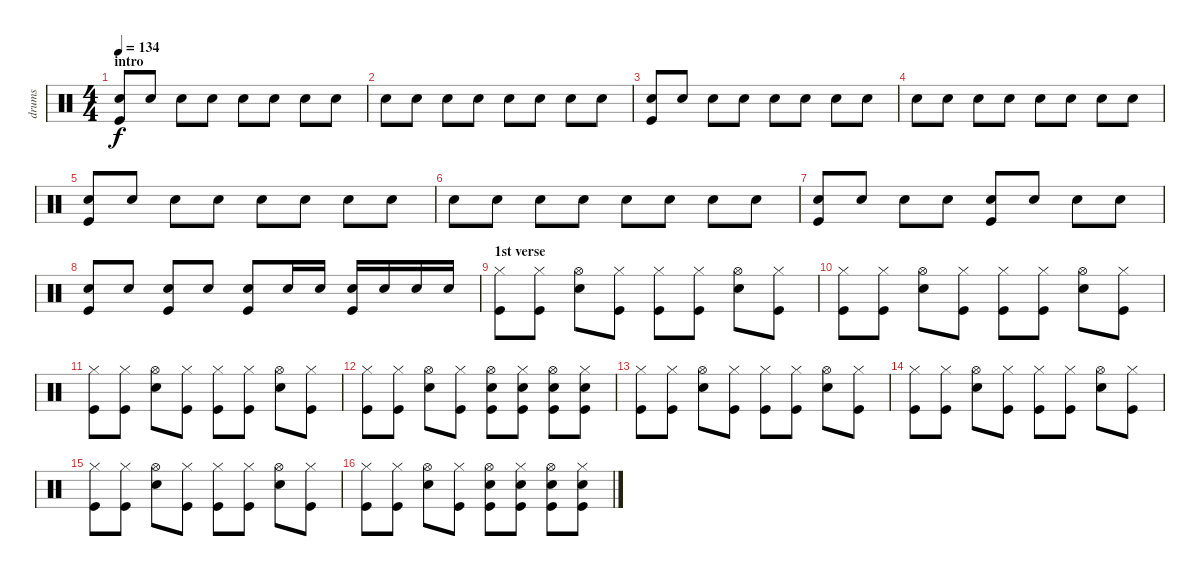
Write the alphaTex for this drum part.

\track ("drums" "drums") {instrument percussion}
\staff {score}
\articulation defaults
\ts (4 4)
\section ("" "intro")
\tempo 134
\clef neutral
\ks c
("Electric Snare (hit)" "Kick (hit)").8{dy f volume 5} "Electric Snare (hit)".8 "Electric Snare (hit)".8{volume 13} "Electric Snare (hit)".8 "Electric Snare (hit)".8 "Electric Snare (hit)".8 "Electric Snare (hit)".8 "Electric Snare (hit)".8 |
"Electric Snare (hit)".8 "Electric Snare (hit)".8 "Electric Snare (hit)".8 "Electric Snare (hit)".8 "Electric Snare (hit)".8 "Electric Snare (hit)".8 "Electric Snare (hit)".8 "Electric Snare (hit)".8 |
("Electric Snare (hit)" "Kick (hit)").8 "Electric Snare (hit)".8{volume 5} "Electric Snare (hit)".8{volume 13} "Electric Snare (hit)".8 "Electric Snare (hit)".8 "Electric Snare (hit)".8 "Electric Snare (hit)".8 "Electric Snare (hit)".8 |
"Electric Snare (hit)".8 "Electric Snare (hit)".8 "Electric Snare (hit)".8 "Electric Snare (hit)".8 "Electric Snare (hit)".8 "Electric Snare (hit)".8 "Electric Snare (hit)".8 "Electric Snare (hit)".8 |
("Electric Snare (hit)" "Kick (hit)").8 "Electric Snare (hit)".8{volume 5} "Electric Snare (hit)".8{volume 13} "Electric Snare (hit)".8 "Electric Snare (hit)".8 "Electric Snare (hit)".8 "Electric Snare (hit)".8 "Electric Snare (hit)".8 |
"Electric Snare (hit)".8 "Electric Snare (hit)".8 "Electric Snare (hit)".8 "Electric Snare (hit)".8 "Electric Snare (hit)".8 "Electric Snare (hit)".8 "Electric Snare (hit)".8 "Electric Snare (hit)".8 |
("Electric Snare (hit)" "Kick (hit)").8 "Electric Snare (hit)".8{volume 5} "Electric Snare (hit)".8{volume 13} "Electric Snare (hit)".8 ("Electric Snare (hit)" "Kick (hit)").8 "Electric Snare (hit)".8 "Electric Snare (hit)".8 "Electric Snare (hit)".8 |
("Electric Snare (hit)" "Kick (hit)").8 "Electric Snare (hit)".8 ("Electric Snare (hit)" "Kick (hit)").8 "Electric Snare (hit)".8 ("Electric Snare (hit)" "Kick (hit)").8 "Electric Snare (hit)".16 "Electric Snare (hit)".16 ("Snare (hit) 2" "Kick (hit)").16 "Electric Snare (hit)".16 "Electric Snare (hit)".16 "Electric Snare (hit)".16 |
\section ("" "1st verse")
("Kick (hit)" "Hi-Hat (closed)").8{volume 11} ("Kick (hit)" "Hi-Hat (closed)").8 ("Electric Snare (hit)" "Hi-Hat (open)").8 ("Kick (hit)" "Hi-Hat (closed)").8 ("Kick (hit)" "Hi-Hat (closed)").8 ("Kick (hit)" "Hi-Hat (closed)").8 ("Electric Snare (hit)" "Hi-Hat (open)").8 ("Kick (hit)" "Hi-Hat (closed)").8 |
("Kick (hit)" "Hi-Hat (closed)").8 ("Kick (hit)" "Hi-Hat (closed)").8 ("Electric Snare (hit)" "Hi-Hat (open)").8 ("Kick (hit)" "Hi-Hat (closed)").8 ("Kick (hit)" "Hi-Hat (closed)").8 ("Kick (hit)" "Hi-Hat (closed)").8 ("Electric Snare (hit)" "Hi-Hat (open)").8 ("Kick (hit)" "Hi-Hat (closed)").8 |
("Kick (hit)" "Hi-Hat (closed)").8 ("Kick (hit)" "Hi-Hat (closed)").8 ("Electric Snare (hit)" "Hi-Hat (open)").8 ("Kick (hit)" "Hi-Hat (closed)").8 ("Kick (hit)" "Hi-Hat (closed)").8 ("Kick (hit)" "Hi-Hat (closed)").8 ("Electric Snare (hit)" "Hi-Hat (open)").8 ("Kick (hit)" "Hi-Hat (closed)").8 |
("Kick (hit)" "Hi-Hat (closed)").8 ("Kick (hit)" "Hi-Hat (closed)").8 ("Electric Snare (hit)" "Hi-Hat (open)").8 ("Kick (hit)" "Hi-Hat (closed)").8 ("Electric Snare (hit)" "Hi-Hat (open)" "Kick (hit)").8 ("Electric Snare (hit)" "Hi-Hat (closed)" "Kick (hit)").8 ("Electric Snare (hit)" "Hi-Hat (open)" "Kick (hit)").8 ("Electric Snare (hit)" "Hi-Hat (closed)" "Kick (hit)").8 |
\section ("" "")
("Kick (hit)" "Hi-Hat (closed)").8 ("Kick (hit)" "Hi-Hat (closed)").8 ("Electric Snare (hit)" "Hi-Hat (open)").8 ("Kick (hit)" "Hi-Hat (closed)").8 ("Kick (hit)" "Hi-Hat (closed)").8 ("Kick (hit)" "Hi-Hat (closed)").8 ("Electric Snare (hit)" "Hi-Hat (open)").8 ("Kick (hit)" "Hi-Hat (closed)").8 |
("Kick (hit)" "Hi-Hat (closed)").8 ("Kick (hit)" "Hi-Hat (closed)").8 ("Electric Snare (hit)" "Hi-Hat (open)").8 ("Kick (hit)" "Hi-Hat (closed)").8 ("Kick (hit)" "Hi-Hat (closed)").8 ("Kick (hit)" "Hi-Hat (closed)").8 ("Electric Snare (hit)" "Hi-Hat (open)").8 ("Kick (hit)" "Hi-Hat (closed)").8 |
("Kick (hit)" "Hi-Hat (closed)").8 ("Kick (hit)" "Hi-Hat (closed)").8 ("Electric Snare (hit)" "Hi-Hat (open)").8 ("Kick (hit)" "Hi-Hat (closed)").8 ("Kick (hit)" "Hi-Hat (closed)").8 ("Kick (hit)" "Hi-Hat (closed)").8 ("Electric Snare (hit)" "Hi-Hat (open)").8 ("Kick (hit)" "Hi-Hat (closed)").8 |
("Kick (hit)" "Hi-Hat (closed)").8 ("Kick (hit)" "Hi-Hat (closed)").8 ("Electric Snare (hit)" "Hi-Hat (open)").8 ("Kick (hit)" "Hi-Hat (closed)").8 ("Electric Snare (hit)" "Hi-Hat (open)" "Kick (hit)").8 ("Electric Snare (hit)" "Hi-Hat (closed)" "Kick (hit)").8 ("Electric Snare (hit)" "Hi-Hat (open)" "Kick (hit)").8 ("Electric Snare (hit)" "Hi-Hat (closed)" "Kick (hit)").8
